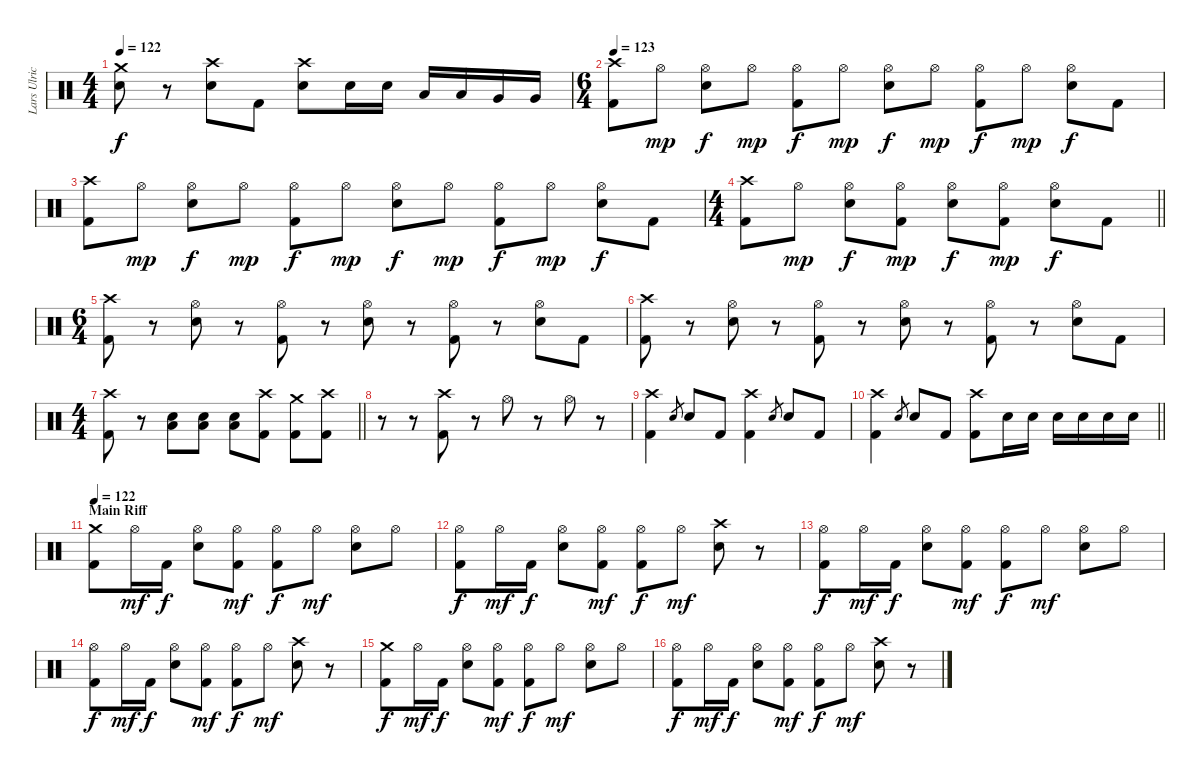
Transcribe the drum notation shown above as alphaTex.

\track ("Lars Ulrich" "Lars Ulric") {instrument percussion}
\staff {score}
\articulation defaults
\ts (4 4)
\tempo 122
\clef neutral
\ks c
("Crash medium (hit)" "Snare (hit) 2").8{dy f} r.8 ("Crash high (hit)" "Snare (hit) 2").8 "Kick (hit) 2".8 ("Crash high (hit)" "Snare (hit) 2").8 "Snare (hit) 2".16 "Snare (hit) 2".16 "Low Tom (hit)".16 "Low Tom (hit)".16 "Very Low Tom (hit)".16 "Very Low Tom (hit)".16 |
\ts (6 4)
\tempo 123
("Crash high (hit)" "Kick (hit) 2").8 "Hi-Hat (open)".8{dy mp} ("Hi-Hat (open)" "Snare (hit) 2").8{dy f} "Hi-Hat (open)".8{dy mp} ("Hi-Hat (open)" "Kick (hit) 2").8{dy f} "Hi-Hat (open)".8{dy mp} ("Hi-Hat (open)" "Snare (hit) 2").8{dy f} "Hi-Hat (open)".8{dy mp} ("Hi-Hat (open)" "Kick (hit) 2").8{dy f} "Hi-Hat (open)".8{dy mp} ("Hi-Hat (open)" "Snare (hit) 2").8{dy f} "Kick (hit) 2".8 |
("Crash high (hit)" "Kick (hit) 2").8 "Hi-Hat (open)".8{dy mp} ("Hi-Hat (open)" "Snare (hit) 2").8{dy f} "Hi-Hat (open)".8{dy mp} ("Hi-Hat (open)" "Kick (hit) 2").8{dy f} "Hi-Hat (open)".8{dy mp} ("Hi-Hat (open)" "Snare (hit) 2").8{dy f} "Hi-Hat (open)".8{dy mp} ("Hi-Hat (open)" "Kick (hit) 2").8{dy f} "Hi-Hat (open)".8{dy mp} ("Hi-Hat (open)" "Snare (hit) 2").8{dy f} "Kick (hit) 2".8 |
\ts (4 4)
\barLineRight lightlight
("Crash high (hit)" "Kick (hit) 2").8 "Hi-Hat (open)".8{dy mp} ("Hi-Hat (open)" "Snare (hit) 2").8{dy f} ("Hi-Hat (open)" "Kick (hit) 2").8{dy mp} ("Hi-Hat (open)" "Snare (hit) 2").8{dy f} ("Hi-Hat (open)" "Kick (hit) 2").8{dy mp} ("Hi-Hat (open)" "Snare (hit) 2").8{dy f} "Kick (hit) 2".8 |
\ts (6 4)
("Crash high (hit)" "Kick (hit) 2").8 r.8 ("Hi-Hat (open)" "Snare (hit) 2").8 r.8 ("Hi-Hat (open)" "Kick (hit) 2").8 r.8 ("Hi-Hat (open)" "Snare (hit) 2").8 r.8 ("Hi-Hat (open)" "Kick (hit) 2").8 r.8 ("Hi-Hat (open)" "Snare (hit) 2").8 "Kick (hit) 2".8 |
("Crash high (hit)" "Kick (hit) 2").8 r.8 ("Hi-Hat (open)" "Snare (hit) 2").8 r.8 ("Hi-Hat (open)" "Kick (hit) 2").8 r.8 ("Hi-Hat (open)" "Snare (hit) 2").8 r.8 ("Hi-Hat (open)" "Kick (hit) 2").8 r.8 ("Hi-Hat (open)" "Snare (hit) 2").8 "Kick (hit) 2".8 |
\ts (4 4)
\barLineRight lightlight
("Crash high (hit)" "Kick (hit) 2").8 r.8 ("Low Floor Tom (hit)" "Snare (hit) 2").8 ("Low Floor Tom (hit)" "Snare (hit) 2").8 ("Low Floor Tom (hit)" "Snare (hit) 2").8 ("Crash high (hit)" "Kick (hit) 2").8 ("Crash medium (hit)" "Kick (hit) 2").8 ("Crash high (hit)" "Kick (hit) 2").8 |
r.8 r.8 ("Crash high (hit)" "Kick (hit) 2").8 r.8 "Hi-Hat (open)".8 r.8 "Hi-Hat (open)".8 r.8 |
("Crash high (hit)" "Kick (hit) 2").4 "Snare (hit) 2".8{gr} "Snare (hit) 2".8 "Kick (hit) 2".8 ("Crash high (hit)" "Kick (hit) 2").4 "Snare (hit) 2".8{gr} "Snare (hit) 2".8 "Kick (hit) 2".8 |
\barLineRight lightlight
("Crash high (hit)" "Kick (hit) 2").4 "Snare (hit) 2".8{gr} "Snare (hit) 2".8 "Kick (hit) 2".8 ("Crash high (hit)" "Kick (hit) 2").8 "Snare (hit) 2".16 "Snare (hit) 2".16 "Snare (hit) 2".16 "Snare (hit) 2".16 "Snare (hit) 2".16 "Snare (hit) 2".16 |
\section ("" "Main Riff")
\tempo 122
("Crash medium (hit)" "Kick (hit) 2").8 "Hi-Hat (open)".16{dy mf} "Kick (hit) 2".16{dy f} ("Hi-Hat (open)" "Snare (hit) 2").8 ("Hi-Hat (open)" "Kick (hit) 2").8{dy mf} ("Hi-Hat (open)" "Kick (hit) 2").8{dy f} "Hi-Hat (open)".8{dy mf} ("Hi-Hat (open)" "Snare (hit) 2").8 "Hi-Hat (open)".8 |
("Hi-Hat (open)" "Kick (hit) 2").8{dy f} "Hi-Hat (open)".16{dy mf} "Kick (hit) 2".16{dy f} ("Hi-Hat (open)" "Snare (hit) 2").8 ("Hi-Hat (open)" "Kick (hit) 2").8{dy mf} ("Hi-Hat (open)" "Kick (hit) 2").8{dy f} "Hi-Hat (open)".8{dy mf} ("Crash high (hit)" "Snare (hit) 2").8 r.8 |
("Hi-Hat (open)" "Kick (hit) 2").8{dy f} "Hi-Hat (open)".16{dy mf} "Kick (hit) 2".16{dy f} ("Hi-Hat (open)" "Snare (hit) 2").8 ("Hi-Hat (open)" "Kick (hit) 2").8{dy mf} ("Hi-Hat (open)" "Kick (hit) 2").8{dy f} "Hi-Hat (open)".8{dy mf} ("Hi-Hat (open)" "Snare (hit) 2").8 "Hi-Hat (open)".8 |
("Hi-Hat (open)" "Kick (hit) 2").8{dy f} "Hi-Hat (open)".16{dy mf} "Kick (hit) 2".16{dy f} ("Hi-Hat (open)" "Snare (hit) 2").8 ("Hi-Hat (open)" "Kick (hit) 2").8{dy mf} ("Hi-Hat (open)" "Kick (hit) 2").8{dy f} "Hi-Hat (open)".8{dy mf} ("Crash high (hit)" "Snare (hit) 2").8 r.8 |
("Crash medium (hit)" "Kick (hit) 2").8{dy f} "Hi-Hat (open)".16{dy mf} "Kick (hit) 2".16{dy f} ("Hi-Hat (open)" "Snare (hit) 2").8 ("Hi-Hat (open)" "Kick (hit) 2").8{dy mf} ("Hi-Hat (open)" "Kick (hit) 2").8{dy f} "Hi-Hat (open)".8{dy mf} ("Hi-Hat (open)" "Snare (hit) 2").8 "Hi-Hat (open)".8 |
("Hi-Hat (open)" "Kick (hit) 2").8{dy f} "Hi-Hat (open)".16{dy mf} "Kick (hit) 2".16{dy f} ("Hi-Hat (open)" "Snare (hit) 2").8 ("Hi-Hat (open)" "Kick (hit) 2").8{dy mf} ("Hi-Hat (open)" "Kick (hit) 2").8{dy f} "Hi-Hat (open)".8{dy mf} ("Crash high (hit)" "Snare (hit) 2").8 r.8
